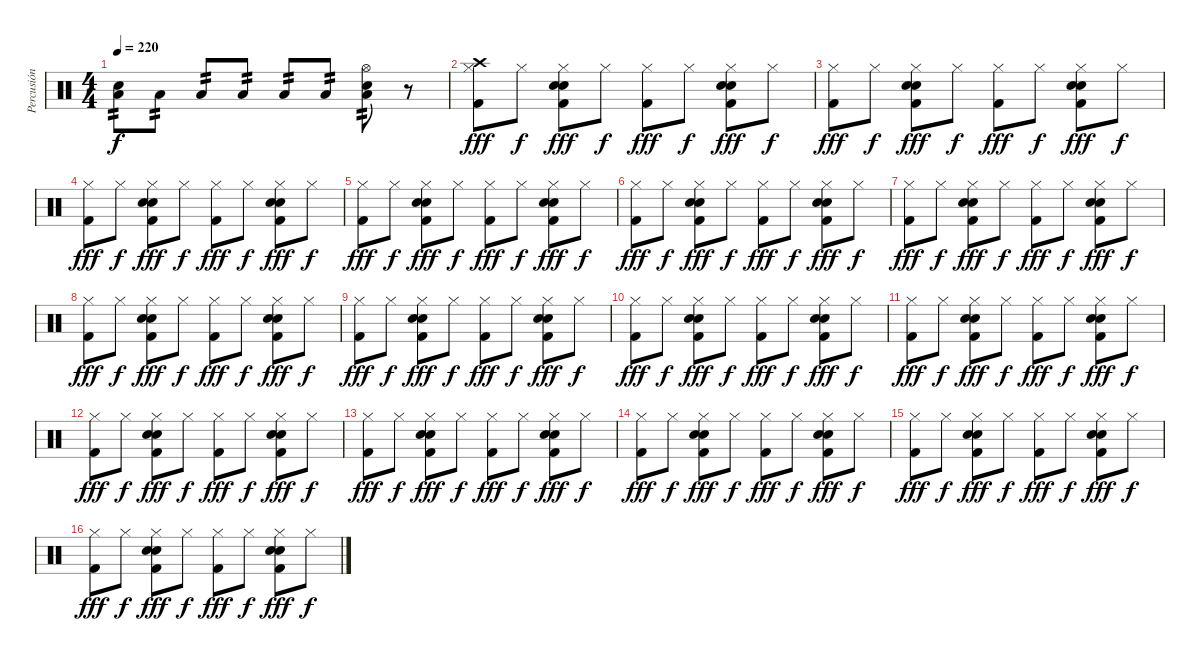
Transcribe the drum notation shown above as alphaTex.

\track ("Percusión" "Percusión") {instrument percussion}
\staff {score}
\articulation defaults
\ts (4 4)
\tempo 220
\clef neutral
\ks c
("Electric Snare (hit)" "Low Tom (hit)").8{tp 2 dy f} "Low Tom (hit)".8{tp 2} "Low Tom (hit)".8{tp 2} "Low Tom (hit)".8{tp 2} "Low Tom (hit)".8{tp 2} "Low Tom (hit)".8{tp 2} ("Hi-Hat (open)" "Snare (hit) 2" "Low Tom (hit)").8{tp 2} r.8 |
("Crash high (hit)" "Hi-Hat (closed)" "Kick (hit) 2").8{dy fff} "Hi-Hat (closed)".8{dy f} ("Hi-Hat (closed)" "Electric Snare (hit)" "Snare (hit) 2" "Kick (hit) 2").8{dy fff} "Hi-Hat (closed)".8{dy f} ("Hi-Hat (closed)" "Kick (hit) 2").8{dy fff} "Hi-Hat (closed)".8{dy f} ("Hi-Hat (closed)" "Electric Snare (hit)" "Snare (hit) 2" "Kick (hit) 2").8{dy fff} "Hi-Hat (closed)".8{dy f} |
("Hi-Hat (closed)" "Kick (hit) 2").8{dy fff} "Hi-Hat (closed)".8{dy f} ("Hi-Hat (closed)" "Electric Snare (hit)" "Snare (hit) 2" "Kick (hit) 2").8{dy fff} "Hi-Hat (closed)".8{dy f} ("Hi-Hat (closed)" "Kick (hit) 2").8{dy fff} "Hi-Hat (closed)".8{dy f} ("Hi-Hat (closed)" "Electric Snare (hit)" "Snare (hit) 2" "Kick (hit) 2").8{dy fff} "Hi-Hat (closed)".8{dy f} |
("Hi-Hat (closed)" "Kick (hit) 2").8{dy fff} "Hi-Hat (closed)".8{dy f} ("Hi-Hat (closed)" "Electric Snare (hit)" "Snare (hit) 2" "Kick (hit) 2").8{dy fff} "Hi-Hat (closed)".8{dy f} ("Hi-Hat (closed)" "Kick (hit) 2").8{dy fff} "Hi-Hat (closed)".8{dy f} ("Hi-Hat (closed)" "Electric Snare (hit)" "Snare (hit) 2" "Kick (hit) 2").8{dy fff} "Hi-Hat (closed)".8{dy f} |
("Hi-Hat (closed)" "Kick (hit) 2").8{dy fff} "Hi-Hat (closed)".8{dy f} ("Hi-Hat (closed)" "Electric Snare (hit)" "Snare (hit) 2" "Kick (hit) 2").8{dy fff} "Hi-Hat (closed)".8{dy f} ("Hi-Hat (closed)" "Kick (hit) 2").8{dy fff} "Hi-Hat (closed)".8{dy f} ("Hi-Hat (closed)" "Electric Snare (hit)" "Snare (hit) 2" "Kick (hit) 2").8{dy fff} "Hi-Hat (closed)".8{dy f} |
("Hi-Hat (closed)" "Kick (hit) 2").8{dy fff} "Hi-Hat (closed)".8{dy f} ("Hi-Hat (closed)" "Electric Snare (hit)" "Snare (hit) 2" "Kick (hit) 2").8{dy fff} "Hi-Hat (closed)".8{dy f} ("Hi-Hat (closed)" "Kick (hit) 2").8{dy fff} "Hi-Hat (closed)".8{dy f} ("Hi-Hat (closed)" "Electric Snare (hit)" "Snare (hit) 2" "Kick (hit) 2").8{dy fff} "Hi-Hat (closed)".8{dy f} |
("Hi-Hat (closed)" "Kick (hit) 2").8{dy fff} "Hi-Hat (closed)".8{dy f} ("Hi-Hat (closed)" "Electric Snare (hit)" "Snare (hit) 2" "Kick (hit) 2").8{dy fff} "Hi-Hat (closed)".8{dy f} ("Hi-Hat (closed)" "Kick (hit) 2").8{dy fff} "Hi-Hat (closed)".8{dy f} ("Hi-Hat (closed)" "Electric Snare (hit)" "Snare (hit) 2" "Kick (hit) 2").8{dy fff} "Hi-Hat (closed)".8{dy f} |
("Hi-Hat (closed)" "Kick (hit) 2").8{dy fff} "Hi-Hat (closed)".8{dy f} ("Hi-Hat (closed)" "Electric Snare (hit)" "Snare (hit) 2" "Kick (hit) 2").8{dy fff} "Hi-Hat (closed)".8{dy f} ("Hi-Hat (closed)" "Kick (hit) 2").8{dy fff} "Hi-Hat (closed)".8{dy f} ("Hi-Hat (closed)" "Electric Snare (hit)" "Snare (hit) 2" "Kick (hit) 2").8{dy fff} "Hi-Hat (closed)".8{dy f} |
("Hi-Hat (closed)" "Kick (hit) 2").8{dy fff} "Hi-Hat (closed)".8{dy f} ("Hi-Hat (closed)" "Electric Snare (hit)" "Snare (hit) 2" "Kick (hit) 2").8{dy fff} "Hi-Hat (closed)".8{dy f} ("Hi-Hat (closed)" "Kick (hit) 2").8{dy fff} "Hi-Hat (closed)".8{dy f} ("Hi-Hat (closed)" "Electric Snare (hit)" "Snare (hit) 2" "Kick (hit) 2").8{dy fff} "Hi-Hat (closed)".8{dy f} |
("Hi-Hat (closed)" "Kick (hit) 2").8{dy fff} "Hi-Hat (closed)".8{dy f} ("Hi-Hat (closed)" "Electric Snare (hit)" "Snare (hit) 2" "Kick (hit) 2").8{dy fff} "Hi-Hat (closed)".8{dy f} ("Hi-Hat (closed)" "Kick (hit) 2").8{dy fff} "Hi-Hat (closed)".8{dy f} ("Hi-Hat (closed)" "Electric Snare (hit)" "Snare (hit) 2" "Kick (hit) 2").8{dy fff} "Hi-Hat (closed)".8{dy f} |
("Hi-Hat (closed)" "Kick (hit) 2").8{dy fff} "Hi-Hat (closed)".8{dy f} ("Hi-Hat (closed)" "Electric Snare (hit)" "Snare (hit) 2" "Kick (hit) 2").8{dy fff} "Hi-Hat (closed)".8{dy f} ("Hi-Hat (closed)" "Kick (hit) 2").8{dy fff} "Hi-Hat (closed)".8{dy f} ("Hi-Hat (closed)" "Electric Snare (hit)" "Snare (hit) 2" "Kick (hit) 2").8{dy fff} "Hi-Hat (closed)".8{dy f} |
("Hi-Hat (closed)" "Kick (hit) 2").8{dy fff} "Hi-Hat (closed)".8{dy f} ("Hi-Hat (closed)" "Electric Snare (hit)" "Snare (hit) 2" "Kick (hit) 2").8{dy fff} "Hi-Hat (closed)".8{dy f} ("Hi-Hat (closed)" "Kick (hit) 2").8{dy fff} "Hi-Hat (closed)".8{dy f} ("Hi-Hat (closed)" "Electric Snare (hit)" "Snare (hit) 2" "Kick (hit) 2").8{dy fff} "Hi-Hat (closed)".8{dy f} |
("Hi-Hat (closed)" "Kick (hit) 2").8{dy fff} "Hi-Hat (closed)".8{dy f} ("Hi-Hat (closed)" "Electric Snare (hit)" "Snare (hit) 2" "Kick (hit) 2").8{dy fff} "Hi-Hat (closed)".8{dy f} ("Hi-Hat (closed)" "Kick (hit) 2").8{dy fff} "Hi-Hat (closed)".8{dy f} ("Hi-Hat (closed)" "Electric Snare (hit)" "Snare (hit) 2" "Kick (hit) 2").8{dy fff} "Hi-Hat (closed)".8{dy f} |
("Hi-Hat (closed)" "Kick (hit) 2").8{dy fff} "Hi-Hat (closed)".8{dy f} ("Hi-Hat (closed)" "Electric Snare (hit)" "Snare (hit) 2" "Kick (hit) 2").8{dy fff} "Hi-Hat (closed)".8{dy f} ("Hi-Hat (closed)" "Kick (hit) 2").8{dy fff} "Hi-Hat (closed)".8{dy f} ("Hi-Hat (closed)" "Electric Snare (hit)" "Snare (hit) 2" "Kick (hit) 2").8{dy fff} "Hi-Hat (closed)".8{dy f} |
("Hi-Hat (closed)" "Kick (hit) 2").8{dy fff} "Hi-Hat (closed)".8{dy f} ("Hi-Hat (closed)" "Electric Snare (hit)" "Snare (hit) 2" "Kick (hit) 2").8{dy fff} "Hi-Hat (closed)".8{dy f} ("Hi-Hat (closed)" "Kick (hit) 2").8{dy fff} "Hi-Hat (closed)".8{dy f} ("Hi-Hat (closed)" "Electric Snare (hit)" "Snare (hit) 2" "Kick (hit) 2").8{dy fff} "Hi-Hat (closed)".8{dy f} |
("Hi-Hat (closed)" "Kick (hit) 2").8{dy fff} "Hi-Hat (closed)".8{dy f} ("Hi-Hat (closed)" "Electric Snare (hit)" "Snare (hit) 2" "Kick (hit) 2").8{dy fff} "Hi-Hat (closed)".8{dy f} ("Hi-Hat (closed)" "Kick (hit) 2").8{dy fff} "Hi-Hat (closed)".8{dy f} ("Hi-Hat (closed)" "Electric Snare (hit)" "Snare (hit) 2" "Kick (hit) 2").8{dy fff} "Hi-Hat (closed)".8{dy f}
